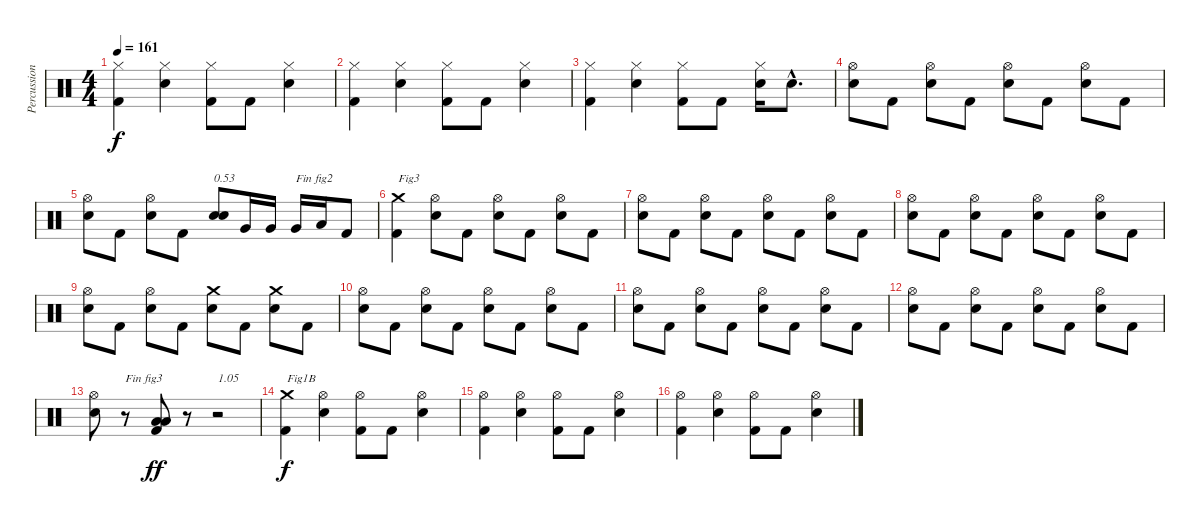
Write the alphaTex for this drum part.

\track ("Percussions" "Percussion") {instrument percussion}
\staff {score}
\articulation defaults
\ts (4 4)
\tempo 161
\clef neutral
\ks c
("Kick (hit) 2" "Hi-Hat (closed)").4{dy f} ("Electric Snare (hit)" "Hi-Hat (closed)").4 ("Kick (hit) 2" "Hi-Hat (closed)").8 "Kick (hit) 2".8 ("Electric Snare (hit)" "Hi-Hat (closed)").4 |
("Kick (hit) 2" "Hi-Hat (closed)").4 ("Electric Snare (hit)" "Hi-Hat (closed)").4 ("Kick (hit) 2" "Hi-Hat (closed)").8 "Kick (hit) 2".8 ("Electric Snare (hit)" "Hi-Hat (closed)").4 |
("Kick (hit) 2" "Hi-Hat (closed)").4 ("Electric Snare (hit)" "Hi-Hat (closed)").4 ("Kick (hit) 2" "Hi-Hat (closed)").8 "Kick (hit) 2".8 ("Electric Snare (hit)" "Hi-Hat (closed)").16 "Electric Snare (hit)"{hac}.8{d} |
("Electric Snare (hit)" "Hi-Hat (open)").8 "Kick (hit) 2".8 ("Electric Snare (hit)" "Hi-Hat (open)").8 "Kick (hit) 2".8 ("Electric Snare (hit)" "Hi-Hat (open)").8 "Kick (hit) 2".8 ("Electric Snare (hit)" "Hi-Hat (open)").8 "Kick (hit) 2".8 |
("Electric Snare (hit)" "Hi-Hat (open)").8 "Kick (hit) 2".8 ("Electric Snare (hit)" "Hi-Hat (open)").8 "Kick (hit) 2".8 ("Electric Snare (hit)" "Electric Snare (hit)").8{txt "0.53"} "Very Low Tom (hit)".16 "Very Low Tom (hit)".16 "Very Low Tom (hit)".16{txt "Fin fig2"} "Low Tom (hit)".16 "Kick (hit) 2".8 |
("Kick (hit) 2" "Crash medium (hit)").4{txt "Fig3"} ("Electric Snare (hit)" "Hi-Hat (open)").8 "Kick (hit) 2".8 ("Electric Snare (hit)" "Hi-Hat (open)").8 "Kick (hit) 2".8 ("Electric Snare (hit)" "Hi-Hat (open)").8 "Kick (hit) 2".8 |
("Electric Snare (hit)" "Hi-Hat (open)").8 "Kick (hit) 2".8 ("Electric Snare (hit)" "Hi-Hat (open)").8 "Kick (hit) 2".8 ("Electric Snare (hit)" "Hi-Hat (open)").8 "Kick (hit) 2".8 ("Electric Snare (hit)" "Hi-Hat (open)").8 "Kick (hit) 2".8 |
("Electric Snare (hit)" "Hi-Hat (open)").8 "Kick (hit) 2".8 ("Electric Snare (hit)" "Hi-Hat (open)").8 "Kick (hit) 2".8 ("Electric Snare (hit)" "Hi-Hat (open)").8 "Kick (hit) 2".8 ("Electric Snare (hit)" "Hi-Hat (open)").8 "Kick (hit) 2".8 |
("Electric Snare (hit)" "Hi-Hat (open)").8 "Kick (hit) 2".8 ("Electric Snare (hit)" "Hi-Hat (open)").8 "Kick (hit) 2".8 ("Electric Snare (hit)" "Crash medium (hit)").8 "Kick (hit) 2".8 ("Electric Snare (hit)" "Crash medium (hit)").8 "Kick (hit) 2".8 |
("Electric Snare (hit)" "Hi-Hat (open)").8 "Kick (hit) 2".8 ("Electric Snare (hit)" "Hi-Hat (open)").8 "Kick (hit) 2".8 ("Electric Snare (hit)" "Hi-Hat (open)").8 "Kick (hit) 2".8 ("Electric Snare (hit)" "Hi-Hat (open)").8 "Kick (hit) 2".8 |
("Electric Snare (hit)" "Hi-Hat (open)").8 "Kick (hit) 2".8 ("Electric Snare (hit)" "Hi-Hat (open)").8 "Kick (hit) 2".8 ("Electric Snare (hit)" "Hi-Hat (open)").8 "Kick (hit) 2".8 ("Electric Snare (hit)" "Hi-Hat (open)").8 "Kick (hit) 2".8 |
("Electric Snare (hit)" "Hi-Hat (open)").8 "Kick (hit) 2".8 ("Electric Snare (hit)" "Hi-Hat (open)").8 "Kick (hit) 2".8 ("Electric Snare (hit)" "Hi-Hat (open)").8 "Kick (hit) 2".8 ("Electric Snare (hit)" "Hi-Hat (open)").8 "Kick (hit) 2".8 |
("Electric Snare (hit)" "Hi-Hat (open)").8 r.8{txt "Fin fig3"} ("Kick (hit) 2" "Low Floor Tom (hit)" "Low Floor Tom (hit)").8{dy ff} r.8 r.2{txt "1.05"} |
("Kick (hit) 2" "Crash medium (hit)").4{txt "Fig1B" dy f} ("Electric Snare (hit)" "Hi-Hat (open)").4 ("Kick (hit) 2" "Hi-Hat (open)").8 "Kick (hit) 2".8 ("Electric Snare (hit)" "Hi-Hat (open)").4 |
("Kick (hit) 2" "Hi-Hat (open)").4 ("Electric Snare (hit)" "Hi-Hat (open)").4 ("Kick (hit) 2" "Hi-Hat (open)").8 "Kick (hit) 2".8 ("Electric Snare (hit)" "Hi-Hat (open)").4 |
("Kick (hit) 2" "Hi-Hat (open)").4 ("Electric Snare (hit)" "Hi-Hat (open)").4 ("Kick (hit) 2" "Hi-Hat (open)").8 "Kick (hit) 2".8 ("Electric Snare (hit)" "Hi-Hat (open)").4
